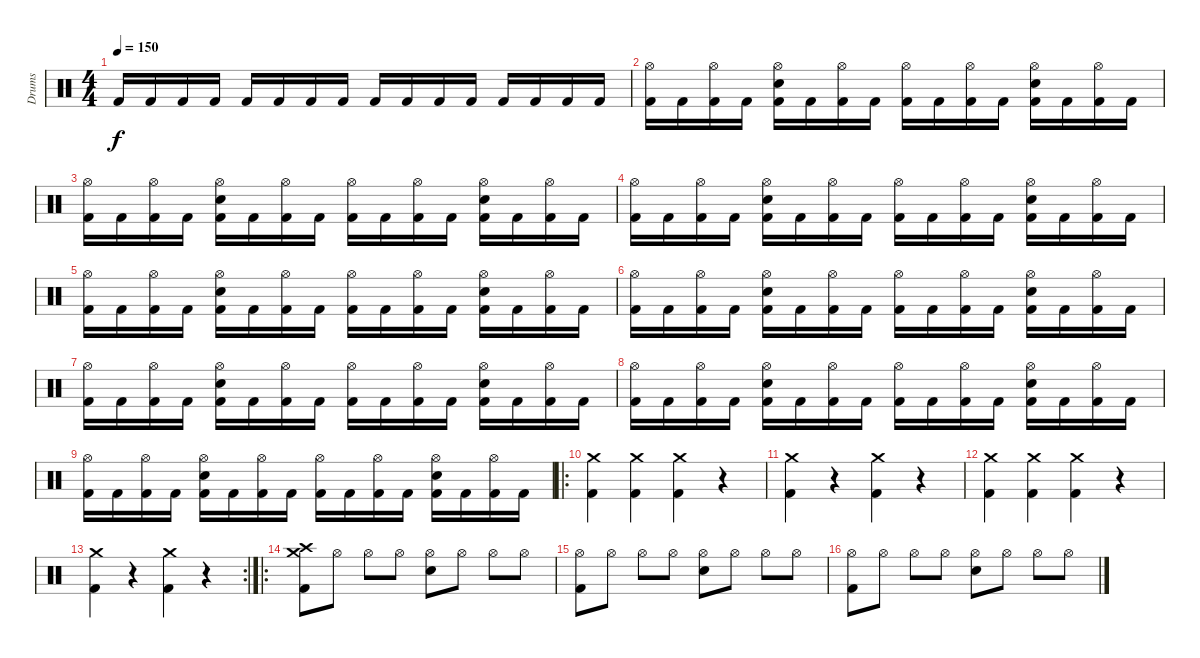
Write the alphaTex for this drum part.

\track ("Drums" "Drums") {instrument percussion}
\staff {score}
\articulation defaults
\ts (4 4)
\tempo 150
\clef neutral
\ks c "Kick (hit) 2".16{dy f} "Kick (hit) 2".16 "Kick (hit) 2".16 "Kick (hit) 2".16 "Kick (hit) 2".16 "Kick (hit) 2".16 "Kick (hit) 2".16 "Kick (hit) 2".16 "Kick (hit) 2".16 "Kick (hit) 2".16 "Kick (hit) 2".16 "Kick (hit) 2".16 "Kick (hit) 2".16 "Kick (hit) 2".16 "Kick (hit) 2".16 "Kick (hit) 2".16
|
("Hi-Hat (open)" "Kick (hit) 2").16 "Kick (hit) 2".16 ("Hi-Hat (open)" "Kick (hit) 2").16 "Kick (hit) 2".16 ("Hi-Hat (open)" "Electric Snare (hit)" "Kick (hit) 2").16 "Kick (hit) 2".16 ("Hi-Hat (open)" "Kick (hit) 2").16 "Kick (hit) 2".16 ("Hi-Hat (open)" "Kick (hit) 2").16 "Kick (hit) 2".16 ("Hi-Hat (open)" "Kick (hit) 2").16 "Kick (hit) 2".16 ("Hi-Hat (open)" "Electric Snare (hit)" "Kick (hit) 2").16 "Kick (hit) 2".16 ("Hi-Hat (open)" "Kick (hit) 2").16 "Kick (hit) 2".16 |
("Hi-Hat (open)" "Kick (hit) 2").16 "Kick (hit) 2".16 ("Hi-Hat (open)" "Kick (hit) 2").16 "Kick (hit) 2".16 ("Hi-Hat (open)" "Electric Snare (hit)" "Kick (hit) 2").16 "Kick (hit) 2".16 ("Hi-Hat (open)" "Kick (hit) 2").16 "Kick (hit) 2".16 ("Hi-Hat (open)" "Kick (hit) 2").16 "Kick (hit) 2".16 ("Hi-Hat (open)" "Kick (hit) 2").16 "Kick (hit) 2".16 ("Hi-Hat (open)" "Electric Snare (hit)" "Kick (hit) 2").16 "Kick (hit) 2".16 ("Hi-Hat (open)" "Kick (hit) 2").16 "Kick (hit) 2".16 |
("Hi-Hat (open)" "Kick (hit) 2").16 "Kick (hit) 2".16 ("Hi-Hat (open)" "Kick (hit) 2").16 "Kick (hit) 2".16 ("Hi-Hat (open)" "Electric Snare (hit)" "Kick (hit) 2").16 "Kick (hit) 2".16 ("Hi-Hat (open)" "Kick (hit) 2").16 "Kick (hit) 2".16 ("Hi-Hat (open)" "Kick (hit) 2").16 "Kick (hit) 2".16 ("Hi-Hat (open)" "Kick (hit) 2").16 "Kick (hit) 2".16 ("Hi-Hat (open)" "Electric Snare (hit)" "Kick (hit) 2").16 "Kick (hit) 2".16 ("Hi-Hat (open)" "Kick (hit) 2").16 "Kick (hit) 2".16 |
("Hi-Hat (open)" "Kick (hit) 2").16 "Kick (hit) 2".16 ("Hi-Hat (open)" "Kick (hit) 2").16 "Kick (hit) 2".16 ("Hi-Hat (open)" "Electric Snare (hit)" "Kick (hit) 2").16 "Kick (hit) 2".16 ("Hi-Hat (open)" "Kick (hit) 2").16 "Kick (hit) 2".16 ("Hi-Hat (open)" "Kick (hit) 2").16 "Kick (hit) 2".16 ("Hi-Hat (open)" "Kick (hit) 2").16 "Kick (hit) 2".16 ("Hi-Hat (open)" "Electric Snare (hit)" "Kick (hit) 2").16 "Kick (hit) 2".16 ("Hi-Hat (open)" "Kick (hit) 2").16 "Kick (hit) 2".16 |
("Hi-Hat (open)" "Kick (hit) 2").16 "Kick (hit) 2".16 ("Hi-Hat (open)" "Kick (hit) 2").16 "Kick (hit) 2".16 ("Hi-Hat (open)" "Electric Snare (hit)" "Kick (hit) 2").16 "Kick (hit) 2".16 ("Hi-Hat (open)" "Kick (hit) 2").16 "Kick (hit) 2".16 ("Hi-Hat (open)" "Kick (hit) 2").16 "Kick (hit) 2".16 ("Hi-Hat (open)" "Kick (hit) 2").16 "Kick (hit) 2".16 ("Hi-Hat (open)" "Electric Snare (hit)" "Kick (hit) 2").16 "Kick (hit) 2".16 ("Hi-Hat (open)" "Kick (hit) 2").16 "Kick (hit) 2".16 |
("Hi-Hat (open)" "Kick (hit) 2").16 "Kick (hit) 2".16 ("Hi-Hat (open)" "Kick (hit) 2").16 "Kick (hit) 2".16 ("Hi-Hat (open)" "Electric Snare (hit)" "Kick (hit) 2").16 "Kick (hit) 2".16 ("Hi-Hat (open)" "Kick (hit) 2").16 "Kick (hit) 2".16 ("Hi-Hat (open)" "Kick (hit) 2").16 "Kick (hit) 2".16 ("Hi-Hat (open)" "Kick (hit) 2").16 "Kick (hit) 2".16 ("Hi-Hat (open)" "Electric Snare (hit)" "Kick (hit) 2").16 "Kick (hit) 2".16 ("Hi-Hat (open)" "Kick (hit) 2").16 "Kick (hit) 2".16 |
("Hi-Hat (open)" "Kick (hit) 2").16 "Kick (hit) 2".16 ("Hi-Hat (open)" "Kick (hit) 2").16 "Kick (hit) 2".16 ("Hi-Hat (open)" "Electric Snare (hit)" "Kick (hit) 2").16 "Kick (hit) 2".16 ("Hi-Hat (open)" "Kick (hit) 2").16 "Kick (hit) 2".16 ("Hi-Hat (open)" "Kick (hit) 2").16 "Kick (hit) 2".16 ("Hi-Hat (open)" "Kick (hit) 2").16 "Kick (hit) 2".16 ("Hi-Hat (open)" "Electric Snare (hit)" "Kick (hit) 2").16 "Kick (hit) 2".16 ("Hi-Hat (open)" "Kick (hit) 2").16 "Kick (hit) 2".16 |
("Hi-Hat (open)" "Kick (hit) 2").16 "Kick (hit) 2".16 ("Hi-Hat (open)" "Kick (hit) 2").16 "Kick (hit) 2".16 ("Hi-Hat (open)" "Electric Snare (hit)" "Kick (hit) 2").16 "Kick (hit) 2".16 ("Hi-Hat (open)" "Kick (hit) 2").16 "Kick (hit) 2".16 ("Hi-Hat (open)" "Kick (hit) 2").16 "Kick (hit) 2".16 ("Hi-Hat (open)" "Kick (hit) 2").16 "Kick (hit) 2".16 ("Hi-Hat (open)" "Electric Snare (hit)" "Kick (hit) 2").16 "Kick (hit) 2".16 ("Hi-Hat (open)" "Kick (hit) 2").16 "Kick (hit) 2".16 |
\ro
("Crash medium (hit)" "Kick (hit) 2").4 ("Crash medium (hit)" "Kick (hit) 2").4 ("Crash medium (hit)" "Kick (hit) 2").4 r.4 |
("Crash medium (hit)" "Kick (hit) 2").4 r.4 ("Crash medium (hit)" "Kick (hit) 2").4 r.4 |
("Crash medium (hit)" "Kick (hit) 2").4 ("Crash medium (hit)" "Kick (hit) 2").4 ("Crash medium (hit)" "Kick (hit) 2").4 r.4 |
\rc 2
("Crash medium (hit)" "Kick (hit) 2").4 r.4 ("Crash medium (hit)" "Kick (hit) 2").4 r.4 |
\ro
("Crash medium (hit)" "Crash high (hit)" "Kick (hit) 2").8 "Hi-Hat (open)".8 "Hi-Hat (open)".8 "Hi-Hat (open)".8 ("Hi-Hat (open)" "Electric Snare (hit)").8 "Hi-Hat (open)".8 "Hi-Hat (open)".8 "Hi-Hat (open)".8 |
("Hi-Hat (open)" "Kick (hit) 2").8 "Hi-Hat (open)".8 "Hi-Hat (open)".8 "Hi-Hat (open)".8 ("Hi-Hat (open)" "Electric Snare (hit)").8 "Hi-Hat (open)".8 "Hi-Hat (open)".8 "Hi-Hat (open)".8 |
("Hi-Hat (open)" "Kick (hit) 2").8 "Hi-Hat (open)".8 "Hi-Hat (open)".8 "Hi-Hat (open)".8 ("Hi-Hat (open)" "Electric Snare (hit)").8 "Hi-Hat (open)".8 "Hi-Hat (open)".8 "Hi-Hat (open)".8
